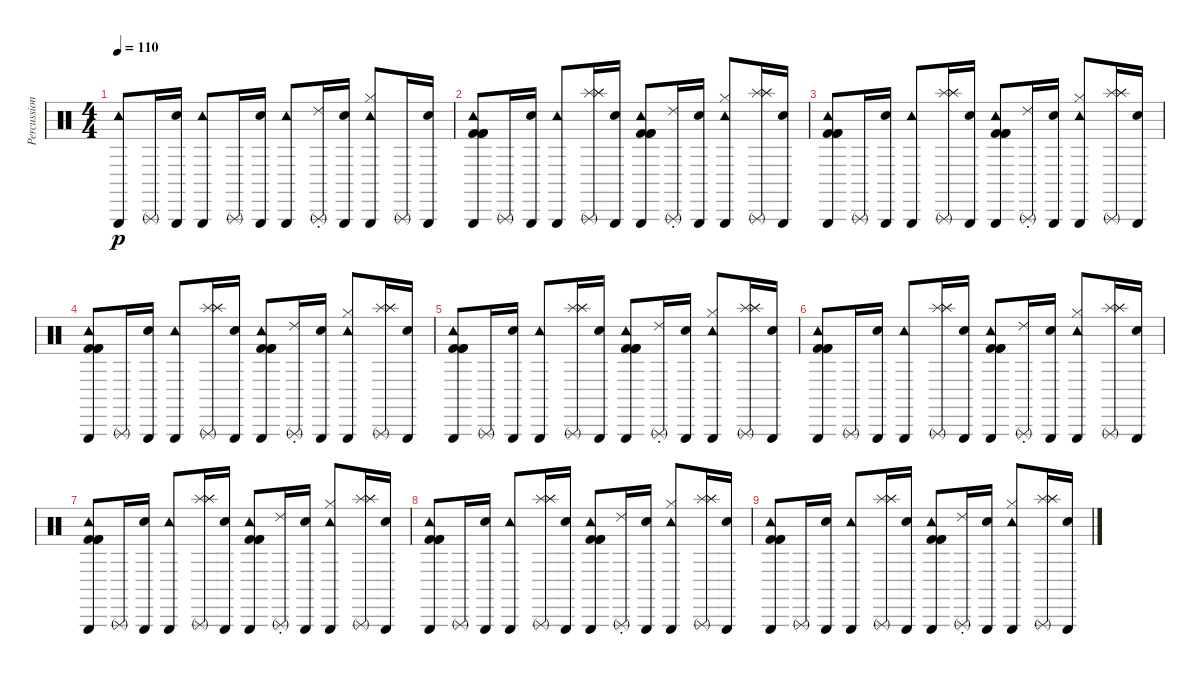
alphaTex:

\track ("Percussion" "Percussion") {instrument percussion}
\staff {score}
\articulation defaults
\ts (4 4)
\tempo 110
\clef neutral
\ks c
("Tambourine (hit)" "Triangle (hit)").8{dy p} "Triangle (rnute)".16 ("Metronome (bell)" "Triangle (hit)").16 ("Tambourine (hit)" "Triangle (hit)").8 "Triangle (rnute)".16 ("Metronome (bell)" "Triangle (hit)").16 ("Tambourine (hit)" "Triangle (hit)").8 ("Triangle (rnute)" "Ride (choke) 2").16 ("Metronome (bell)" "Triangle (hit)").16 ("Tambourine (hit)" "Triangle (hit)" "Hi-Hat (closed)").8 "Triangle (rnute)".16 ("Metronome (bell)" "Triangle (hit)").16 |
("Tambourine (hit)" "Triangle (hit)" "Kick (hit) 2" "Kick (hit) 2" "Kick (hit) 2").8 "Triangle (rnute)".16 ("Metronome (bell)" "Triangle (hit)").16 ("Tambourine (hit)" "Triangle (hit)").8 ("Triangle (rnute)" "Splash (hit)" "Splash (hit)" "Splash (hit)").16 ("Metronome (bell)" "Triangle (hit)").16 ("Tambourine (hit)" "Triangle (hit)" "Kick (hit) 2" "Kick (hit) 2" "Kick (hit) 2").8 ("Triangle (rnute)" "Ride (choke) 2").16 ("Metronome (bell)" "Triangle (hit)").16 ("Tambourine (hit)" "Triangle (hit)" "Hi-Hat (closed)").8 ("Triangle (rnute)" "Splash (hit)" "Splash (hit)" "Splash (hit)").16 ("Metronome (bell)" "Triangle (hit)").16 |
("Tambourine (hit)" "Triangle (hit)" "Kick (hit) 2" "Kick (hit) 2" "Kick (hit) 2").8 "Triangle (rnute)".16 ("Metronome (bell)" "Triangle (hit)").16 ("Tambourine (hit)" "Triangle (hit)").8 ("Triangle (rnute)" "Splash (hit)" "Splash (hit)" "Splash (hit)").16 ("Metronome (bell)" "Triangle (hit)").16 ("Tambourine (hit)" "Triangle (hit)" "Kick (hit) 2" "Kick (hit) 2" "Kick (hit) 2").8 ("Triangle (rnute)" "Ride (choke) 2").16 ("Metronome (bell)" "Triangle (hit)").16 ("Tambourine (hit)" "Triangle (hit)" "Hi-Hat (closed)").8 ("Triangle (rnute)" "Splash (hit)" "Splash (hit)" "Splash (hit)").16 ("Metronome (bell)" "Triangle (hit)").16 |
("Tambourine (hit)" "Triangle (hit)" "Kick (hit) 2" "Kick (hit) 2" "Kick (hit) 2").8 "Triangle (rnute)".16 ("Metronome (bell)" "Triangle (hit)").16 ("Tambourine (hit)" "Triangle (hit)").8 ("Triangle (rnute)" "Splash (hit)" "Splash (hit)" "Splash (hit)").16 ("Metronome (bell)" "Triangle (hit)").16 ("Tambourine (hit)" "Triangle (hit)" "Kick (hit) 2" "Kick (hit) 2" "Kick (hit) 2").8 ("Triangle (rnute)" "Ride (choke) 2").16 ("Metronome (bell)" "Triangle (hit)").16 ("Tambourine (hit)" "Triangle (hit)" "Hi-Hat (closed)").8 ("Triangle (rnute)" "Splash (hit)" "Splash (hit)" "Splash (hit)").16 ("Metronome (bell)" "Triangle (hit)").16 |
("Tambourine (hit)" "Triangle (hit)" "Kick (hit) 2" "Kick (hit) 2" "Kick (hit) 2").8 "Triangle (rnute)".16 ("Metronome (bell)" "Triangle (hit)").16 ("Tambourine (hit)" "Triangle (hit)").8 ("Triangle (rnute)" "Splash (hit)" "Splash (hit)" "Splash (hit)").16 ("Metronome (bell)" "Triangle (hit)").16 ("Tambourine (hit)" "Triangle (hit)" "Kick (hit) 2" "Kick (hit) 2" "Kick (hit) 2").8 ("Triangle (rnute)" "Ride (choke) 2").16 ("Metronome (bell)" "Triangle (hit)").16 ("Tambourine (hit)" "Triangle (hit)" "Hi-Hat (closed)").8 ("Triangle (rnute)" "Splash (hit)" "Splash (hit)" "Splash (hit)").16 ("Metronome (bell)" "Triangle (hit)").16 |
("Tambourine (hit)" "Triangle (hit)" "Kick (hit) 2" "Kick (hit) 2" "Kick (hit) 2").8 "Triangle (rnute)".16 ("Metronome (bell)" "Triangle (hit)").16 ("Tambourine (hit)" "Triangle (hit)").8 ("Triangle (rnute)" "Splash (hit)" "Splash (hit)" "Splash (hit)").16 ("Metronome (bell)" "Triangle (hit)").16 ("Tambourine (hit)" "Triangle (hit)" "Kick (hit) 2" "Kick (hit) 2" "Kick (hit) 2").8 ("Triangle (rnute)" "Ride (choke) 2").16 ("Metronome (bell)" "Triangle (hit)").16 ("Tambourine (hit)" "Triangle (hit)" "Hi-Hat (closed)").8 ("Triangle (rnute)" "Splash (hit)" "Splash (hit)" "Splash (hit)").16 ("Metronome (bell)" "Triangle (hit)").16 |
("Tambourine (hit)" "Triangle (hit)" "Kick (hit) 2" "Kick (hit) 2" "Kick (hit) 2").8 "Triangle (rnute)".16 ("Metronome (bell)" "Triangle (hit)").16 ("Tambourine (hit)" "Triangle (hit)").8 ("Triangle (rnute)" "Splash (hit)" "Splash (hit)" "Splash (hit)").16 ("Metronome (bell)" "Triangle (hit)").16 ("Tambourine (hit)" "Triangle (hit)" "Kick (hit) 2" "Kick (hit) 2" "Kick (hit) 2").8 ("Triangle (rnute)" "Ride (choke) 2").16 ("Metronome (bell)" "Triangle (hit)").16 ("Tambourine (hit)" "Triangle (hit)" "Hi-Hat (closed)").8 ("Triangle (rnute)" "Splash (hit)" "Splash (hit)" "Splash (hit)").16 ("Metronome (bell)" "Triangle (hit)").16 |
("Tambourine (hit)" "Triangle (hit)" "Kick (hit) 2" "Kick (hit) 2" "Kick (hit) 2").8 "Triangle (rnute)".16 ("Metronome (bell)" "Triangle (hit)").16 ("Tambourine (hit)" "Triangle (hit)").8 ("Triangle (rnute)" "Splash (hit)" "Splash (hit)" "Splash (hit)").16 ("Metronome (bell)" "Triangle (hit)").16 ("Tambourine (hit)" "Triangle (hit)" "Kick (hit) 2" "Kick (hit) 2" "Kick (hit) 2").8 ("Triangle (rnute)" "Ride (choke) 2").16 ("Metronome (bell)" "Triangle (hit)").16 ("Tambourine (hit)" "Triangle (hit)" "Hi-Hat (closed)").8 ("Triangle (rnute)" "Splash (hit)" "Splash (hit)" "Splash (hit)").16 ("Metronome (bell)" "Triangle (hit)").16 |
("Tambourine (hit)" "Triangle (hit)" "Kick (hit) 2" "Kick (hit) 2" "Kick (hit) 2").8 "Triangle (rnute)".16 ("Metronome (bell)" "Triangle (hit)").16 ("Tambourine (hit)" "Triangle (hit)").8 ("Triangle (rnute)" "Splash (hit)" "Splash (hit)" "Splash (hit)").16 ("Metronome (bell)" "Triangle (hit)").16 ("Tambourine (hit)" "Triangle (hit)" "Kick (hit) 2" "Kick (hit) 2" "Kick (hit) 2").8 ("Triangle (rnute)" "Ride (choke) 2").16 ("Metronome (bell)" "Triangle (hit)").16 ("Tambourine (hit)" "Triangle (hit)" "Hi-Hat (closed)").8 ("Triangle (rnute)" "Splash (hit)" "Splash (hit)" "Splash (hit)").16 ("Metronome (bell)" "Triangle (hit)").16
